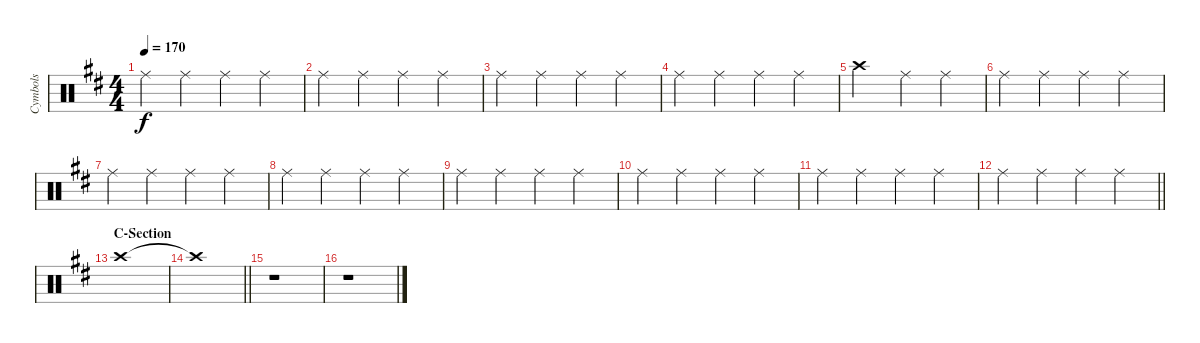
\track ("Cymbols" "Cymbols") {instrument percussion}
\staff {score}
\articulation defaults
\ts (4 4)
\tempo 170
\clef neutral
\ks d "Ride (middle)".4{dy f} "Ride (middle)".4 "Ride (middle)".4 "Ride (middle)".4
|
"Ride (middle)".4 "Ride (middle)".4 "Ride (middle)".4 "Ride (middle)".4 |
"Ride (middle)".4 "Ride (middle)".4 "Ride (middle)".4 "Ride (middle)".4 |
"Ride (middle)".4 "Ride (middle)".4 "Ride (middle)".4 "Ride (middle)".4 |
"Crash high (hit)".2 "Ride (middle)".4 "Ride (middle)".4 |
"Ride (middle)".4 "Ride (middle)".4 "Ride (middle)".4 "Ride (middle)".4 |
"Ride (middle)".4 "Ride (middle)".4 "Ride (middle)".4 "Ride (middle)".4 |
"Ride (middle)".4 "Ride (middle)".4 "Ride (middle)".4 "Ride (middle)".4 |
"Ride (middle)".4 "Ride (middle)".4 "Ride (middle)".4 "Ride (middle)".4 |
"Ride (middle)".4 "Ride (middle)".4 "Ride (middle)".4 "Ride (middle)".4 |
"Ride (middle)".4 "Ride (middle)".4 "Ride (middle)".4 "Ride (middle)".4 |
\barLineRight lightlight "Ride (middle)".4 "Ride (middle)".4 "Ride (middle)".4 "Ride (middle)".4
|
\section ("" "C-Section")
"Crash high (hit)".1 |
\barLineRight lightlight "Crash high (hit)"{t}.1
|
r.1 |
r.1
